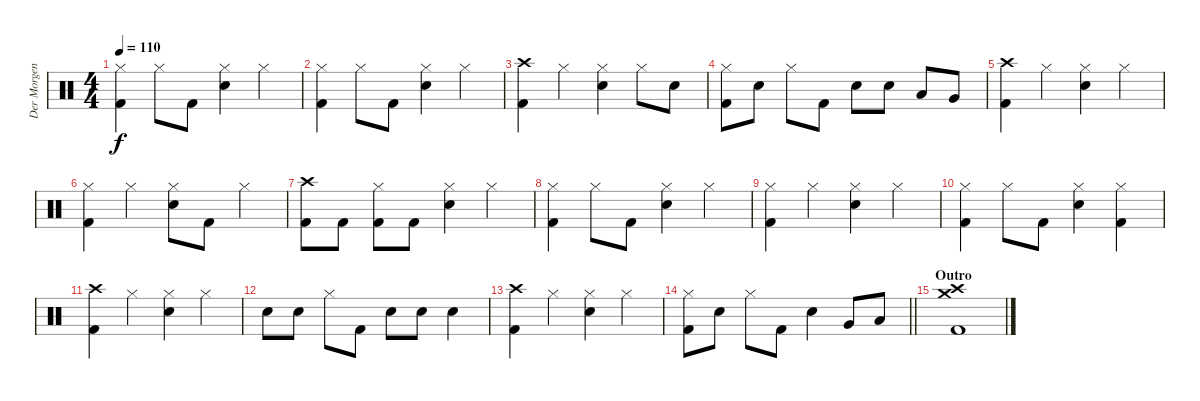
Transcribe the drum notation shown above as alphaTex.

\track ("Der Morgenstern" "Der Morgen") {instrument percussion}
\staff {score}
\articulation defaults
\ts (4 4)
\tempo 110
\clef neutral
\ks c
("Hi-Hat (closed)" "Kick (hit) 2").4{dy f} "Hi-Hat (closed)".8 "Kick (hit) 2".8 ("Hi-Hat (closed)" "Electric Snare (hit)").4 "Hi-Hat (closed)".4 |
("Hi-Hat (closed)" "Kick (hit) 2").4 "Hi-Hat (closed)".8 "Kick (hit) 2".8 ("Hi-Hat (closed)" "Electric Snare (hit)").4 "Hi-Hat (closed)".4 |
("Crash high (hit)" "Kick (hit) 2").4 "Hi-Hat (closed)".4 ("Hi-Hat (closed)" "Electric Snare (hit)").4 "Hi-Hat (closed)".8 "Electric Snare (hit)".8 |
("Hi-Hat (closed)" "Kick (hit) 2").8 "Electric Snare (hit)".8 "Hi-Hat (closed)".8 "Kick (hit) 2".8 "Electric Snare (hit)".8 "Electric Snare (hit)".8 "Low Tom (hit)".8 "Very Low Tom (hit)".8 |
("Crash high (hit)" "Kick (hit) 2").4 "Hi-Hat (closed)".4 ("Hi-Hat (closed)" "Electric Snare (hit)").4 "Hi-Hat (closed)".4 |
("Hi-Hat (closed)" "Kick (hit) 2").4 "Hi-Hat (closed)".4 ("Hi-Hat (closed)" "Electric Snare (hit)").8 "Kick (hit) 2".8 "Hi-Hat (closed)".4 |
("Crash high (hit)" "Kick (hit) 2").8 "Kick (hit) 2".8 ("Hi-Hat (closed)" "Kick (hit) 2").8 "Kick (hit) 2".8 ("Hi-Hat (closed)" "Electric Snare (hit)").4 "Hi-Hat (closed)".4 |
("Hi-Hat (closed)" "Kick (hit) 2").4 "Hi-Hat (closed)".8 "Kick (hit) 2".8 ("Hi-Hat (closed)" "Electric Snare (hit)").4 "Hi-Hat (closed)".4 |
("Hi-Hat (closed)" "Kick (hit) 2").4 "Hi-Hat (closed)".4 ("Hi-Hat (closed)" "Electric Snare (hit)").4 "Hi-Hat (closed)".4 |
("Hi-Hat (closed)" "Kick (hit) 2").4 "Hi-Hat (closed)".8 "Kick (hit) 2".8 ("Hi-Hat (closed)" "Electric Snare (hit)").4 ("Hi-Hat (closed)" "Kick (hit) 2").4 |
("Crash high (hit)" "Kick (hit) 2").4 "Hi-Hat (closed)".4 ("Hi-Hat (closed)" "Electric Snare (hit)").4 "Hi-Hat (closed)".4 |
"Electric Snare (hit)".8 "Electric Snare (hit)".8 "Hi-Hat (closed)".8 "Kick (hit) 2".8 "Electric Snare (hit)".8 "Electric Snare (hit)".8 "Electric Snare (hit)".4 |
("Crash high (hit)" "Kick (hit) 2").4 "Hi-Hat (closed)".4 ("Hi-Hat (closed)" "Electric Snare (hit)").4 "Hi-Hat (closed)".4 |
\barLineRight lightlight
("Hi-Hat (closed)" "Kick (hit) 2").8 "Electric Snare (hit)".8 "Hi-Hat (closed)".8 "Kick (hit) 2".8 "Electric Snare (hit)".4 "Very Low Tom (hit)".8 "Low Floor Tom (hit)".8 |
\section ("" "Outro")
("Crash high (hit)" "Crash medium (hit)" "Kick (hit) 2").1
